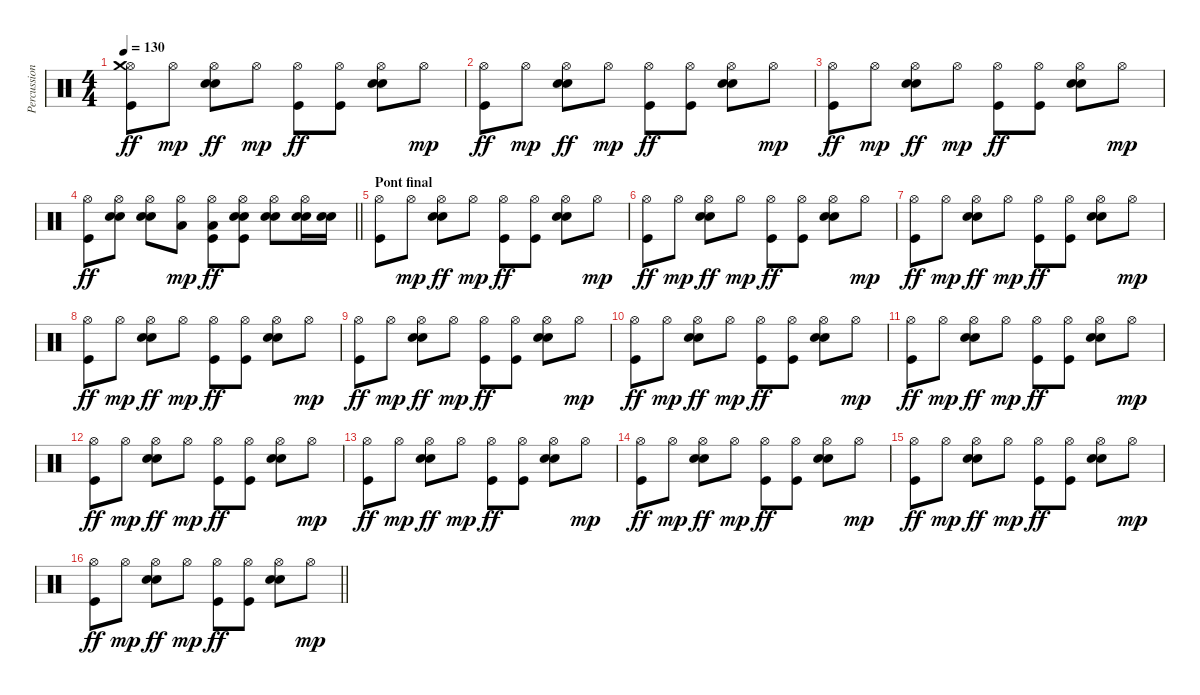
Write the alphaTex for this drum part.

\track ("Percussions" "Percussion") {instrument percussion}
\staff {score}
\articulation defaults
\ts (4 4)
\tempo 130
\clef neutral
\ks c
("Hi-Hat (open)" "Crash medium (hit)" "Kick (hit)").8{dy ff} "Hi-Hat (open)".8{dy mp} ("Hi-Hat (open)" "Snare (hit) 2" "Electric Snare (hit)").8{dy ff} "Hi-Hat (open)".8{dy mp} ("Hi-Hat (open)" "Kick (hit)").8{dy ff} ("Hi-Hat (open)" "Kick (hit)").8 ("Hi-Hat (open)" "Snare (hit) 2" "Electric Snare (hit)").8 "Hi-Hat (open)".8{dy mp} |
("Hi-Hat (open)" "Kick (hit)").8{dy ff} "Hi-Hat (open)".8{dy mp} ("Hi-Hat (open)" "Snare (hit) 2" "Electric Snare (hit)").8{dy ff} "Hi-Hat (open)".8{dy mp} ("Hi-Hat (open)" "Kick (hit)").8{dy ff} ("Hi-Hat (open)" "Kick (hit)").8 ("Hi-Hat (open)" "Snare (hit) 2" "Electric Snare (hit)").8 "Hi-Hat (open)".8{dy mp} |
("Hi-Hat (open)" "Kick (hit)").8{dy ff} "Hi-Hat (open)".8{dy mp} ("Hi-Hat (open)" "Snare (hit) 2" "Electric Snare (hit)").8{dy ff} "Hi-Hat (open)".8{dy mp} ("Hi-Hat (open)" "Kick (hit)").8{dy ff} ("Hi-Hat (open)" "Kick (hit)").8 ("Hi-Hat (open)" "Snare (hit) 2" "Electric Snare (hit)").8 "Hi-Hat (open)".8{dy mp} |
\barLineRight lightlight
("Hi-Hat (open)" "Kick (hit)").8{dy ff} ("Hi-Hat (open)" "Snare (hit) 2" "Electric Snare (hit)").8 ("Hi-Hat (open)" "Snare (hit) 2" "Electric Snare (hit)").8 ("Hi-Hat (open)" "Low Floor Tom (hit)").8{dy mp} ("Hi-Hat (open)" "Low Floor Tom (hit)" "Kick (hit)").8{dy ff} ("Hi-Hat (open)" "Snare (hit) 2" "Electric Snare (hit)" "Kick (hit)").8 ("Hi-Hat (open)" "Snare (hit) 2" "Electric Snare (hit)").8 ("Hi-Hat (open)" "Snare (hit) 2" "Electric Snare (hit)").16 ("Snare (hit) 2" "Electric Snare (hit)").16 |
\section ("" "Pont final")
("Hi-Hat (open)" "Kick (hit)").8 "Hi-Hat (open)".8{dy mp} ("Hi-Hat (open)" "Snare (hit) 2" "Electric Snare (hit)").8{dy ff} "Hi-Hat (open)".8{dy mp} ("Hi-Hat (open)" "Kick (hit)").8{dy ff} ("Hi-Hat (open)" "Kick (hit)").8 ("Hi-Hat (open)" "Snare (hit) 2" "Electric Snare (hit)").8 "Hi-Hat (open)".8{dy mp} |
("Hi-Hat (open)" "Kick (hit)").8{dy ff} "Hi-Hat (open)".8{dy mp} ("Hi-Hat (open)" "Snare (hit) 2" "Electric Snare (hit)").8{dy ff} "Hi-Hat (open)".8{dy mp} ("Hi-Hat (open)" "Kick (hit)").8{dy ff} ("Hi-Hat (open)" "Kick (hit)").8 ("Hi-Hat (open)" "Snare (hit) 2" "Electric Snare (hit)").8 "Hi-Hat (open)".8{dy mp} |
("Hi-Hat (open)" "Kick (hit)").8{dy ff} "Hi-Hat (open)".8{dy mp} ("Hi-Hat (open)" "Snare (hit) 2" "Electric Snare (hit)").8{dy ff} "Hi-Hat (open)".8{dy mp} ("Hi-Hat (open)" "Kick (hit)").8{dy ff} ("Hi-Hat (open)" "Kick (hit)").8 ("Hi-Hat (open)" "Snare (hit) 2" "Electric Snare (hit)").8 "Hi-Hat (open)".8{dy mp} |
("Hi-Hat (open)" "Kick (hit)").8{dy ff} "Hi-Hat (open)".8{dy mp} ("Hi-Hat (open)" "Snare (hit) 2" "Electric Snare (hit)").8{dy ff} "Hi-Hat (open)".8{dy mp} ("Hi-Hat (open)" "Kick (hit)").8{dy ff} ("Hi-Hat (open)" "Kick (hit)").8 ("Hi-Hat (open)" "Snare (hit) 2" "Electric Snare (hit)").8 "Hi-Hat (open)".8{dy mp} |
("Hi-Hat (open)" "Kick (hit)").8{dy ff} "Hi-Hat (open)".8{dy mp} ("Hi-Hat (open)" "Snare (hit) 2" "Electric Snare (hit)").8{dy ff} "Hi-Hat (open)".8{dy mp} ("Hi-Hat (open)" "Kick (hit)").8{dy ff} ("Hi-Hat (open)" "Kick (hit)").8 ("Hi-Hat (open)" "Snare (hit) 2" "Electric Snare (hit)").8 "Hi-Hat (open)".8{dy mp} |
("Hi-Hat (open)" "Kick (hit)").8{dy ff} "Hi-Hat (open)".8{dy mp} ("Hi-Hat (open)" "Snare (hit) 2" "Electric Snare (hit)").8{dy ff} "Hi-Hat (open)".8{dy mp} ("Hi-Hat (open)" "Kick (hit)").8{dy ff} ("Hi-Hat (open)" "Kick (hit)").8 ("Hi-Hat (open)" "Snare (hit) 2" "Electric Snare (hit)").8 "Hi-Hat (open)".8{dy mp} |
("Hi-Hat (open)" "Kick (hit)").8{dy ff} "Hi-Hat (open)".8{dy mp} ("Hi-Hat (open)" "Snare (hit) 2" "Electric Snare (hit)").8{dy ff} "Hi-Hat (open)".8{dy mp} ("Hi-Hat (open)" "Kick (hit)").8{dy ff} ("Hi-Hat (open)" "Kick (hit)").8 ("Hi-Hat (open)" "Snare (hit) 2" "Electric Snare (hit)").8 "Hi-Hat (open)".8{dy mp} |
("Hi-Hat (open)" "Kick (hit)").8{dy ff} "Hi-Hat (open)".8{dy mp} ("Hi-Hat (open)" "Snare (hit) 2" "Electric Snare (hit)").8{dy ff} "Hi-Hat (open)".8{dy mp} ("Hi-Hat (open)" "Kick (hit)").8{dy ff} ("Hi-Hat (open)" "Kick (hit)").8 ("Hi-Hat (open)" "Snare (hit) 2" "Electric Snare (hit)").8 "Hi-Hat (open)".8{dy mp} |
("Hi-Hat (open)" "Kick (hit)").8{dy ff} "Hi-Hat (open)".8{dy mp} ("Hi-Hat (open)" "Snare (hit) 2" "Electric Snare (hit)").8{dy ff} "Hi-Hat (open)".8{dy mp} ("Hi-Hat (open)" "Kick (hit)").8{dy ff} ("Hi-Hat (open)" "Kick (hit)").8 ("Hi-Hat (open)" "Snare (hit) 2" "Electric Snare (hit)").8 "Hi-Hat (open)".8{dy mp} |
("Hi-Hat (open)" "Kick (hit)").8{dy ff} "Hi-Hat (open)".8{dy mp} ("Hi-Hat (open)" "Snare (hit) 2" "Electric Snare (hit)").8{dy ff} "Hi-Hat (open)".8{dy mp} ("Hi-Hat (open)" "Kick (hit)").8{dy ff} ("Hi-Hat (open)" "Kick (hit)").8 ("Hi-Hat (open)" "Snare (hit) 2" "Electric Snare (hit)").8 "Hi-Hat (open)".8{dy mp} |
("Hi-Hat (open)" "Kick (hit)").8{dy ff} "Hi-Hat (open)".8{dy mp} ("Hi-Hat (open)" "Snare (hit) 2" "Electric Snare (hit)").8{dy ff} "Hi-Hat (open)".8{dy mp} ("Hi-Hat (open)" "Kick (hit)").8{dy ff} ("Hi-Hat (open)" "Kick (hit)").8 ("Hi-Hat (open)" "Snare (hit) 2" "Electric Snare (hit)").8 "Hi-Hat (open)".8{dy mp} |
\barLineRight lightlight
("Hi-Hat (open)" "Kick (hit)").8{dy ff} "Hi-Hat (open)".8{dy mp} ("Hi-Hat (open)" "Snare (hit) 2" "Electric Snare (hit)").8{dy ff} "Hi-Hat (open)".8{dy mp} ("Hi-Hat (open)" "Kick (hit)").8{dy ff} ("Hi-Hat (open)" "Kick (hit)").8 ("Hi-Hat (open)" "Snare (hit) 2" "Electric Snare (hit)").8 "Hi-Hat (open)".8{dy mp}
